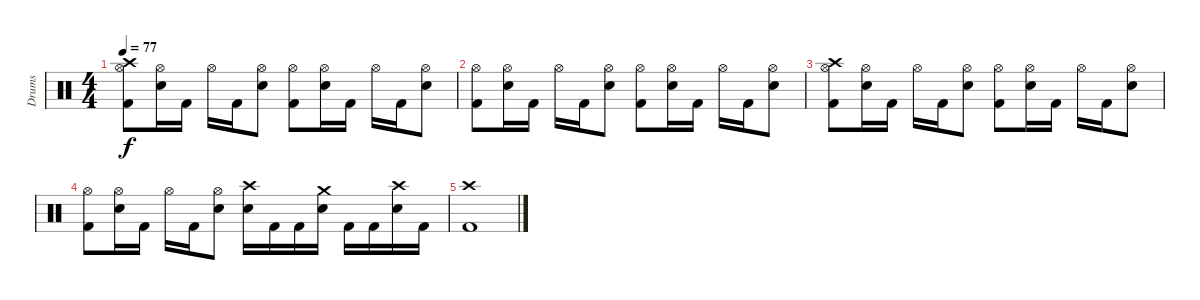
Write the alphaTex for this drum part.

\track ("Drums" "Drums") {instrument percussion}
\staff {score}
\articulation defaults
\ts (4 4)
\tempo 77
\clef neutral
\ks c
("Crash high (hit)" "Hi-Hat (open)" "Kick (hit) 2").8{dy f} ("Hi-Hat (open)" "Snare (hit) 2").16 "Kick (hit) 2".16 "Hi-Hat (open)".16 "Kick (hit) 2".16 ("Hi-Hat (open)" "Snare (hit) 2").8 ("Hi-Hat (open)" "Kick (hit) 2").8 ("Hi-Hat (open)" "Snare (hit) 2").16 "Kick (hit) 2".16 "Hi-Hat (open)".16 "Kick (hit) 2".16 ("Hi-Hat (open)" "Snare (hit) 2").8 |
("Hi-Hat (open)" "Kick (hit) 2").8 ("Hi-Hat (open)" "Snare (hit) 2").16 "Kick (hit) 2".16 "Hi-Hat (open)".16 "Kick (hit) 2".16 ("Hi-Hat (open)" "Snare (hit) 2").8 ("Hi-Hat (open)" "Kick (hit) 2").8 ("Hi-Hat (open)" "Snare (hit) 2").16 "Kick (hit) 2".16 "Hi-Hat (open)".16 "Kick (hit) 2".16 ("Hi-Hat (open)" "Snare (hit) 2").8 |
("Crash high (hit)" "Hi-Hat (open)" "Kick (hit) 2").8 ("Hi-Hat (open)" "Snare (hit) 2").16 "Kick (hit) 2".16 "Hi-Hat (open)".16 "Kick (hit) 2".16 ("Hi-Hat (open)" "Snare (hit) 2").8 ("Hi-Hat (open)" "Kick (hit) 2").8 ("Hi-Hat (open)" "Snare (hit) 2").16 "Kick (hit) 2".16 "Hi-Hat (open)".16 "Kick (hit) 2".16 ("Hi-Hat (open)" "Snare (hit) 2").8 |
("Hi-Hat (open)" "Kick (hit) 2").8 ("Hi-Hat (open)" "Snare (hit) 2").16 "Kick (hit) 2".16 "Hi-Hat (open)".16 "Kick (hit) 2".16 ("Hi-Hat (open)" "Snare (hit) 2").8 ("Crash high (hit)" "Snare (hit) 2").16 "Kick (hit) 2".16 "Kick (hit) 2".16 ("Crash medium (hit)" "Snare (hit) 2").16 "Kick (hit) 2".16 "Kick (hit) 2".16 ("Crash high (hit)" "Snare (hit) 2").16 "Kick (hit) 2".16 |
("Crash high (hit)" "Kick (hit) 2").1
